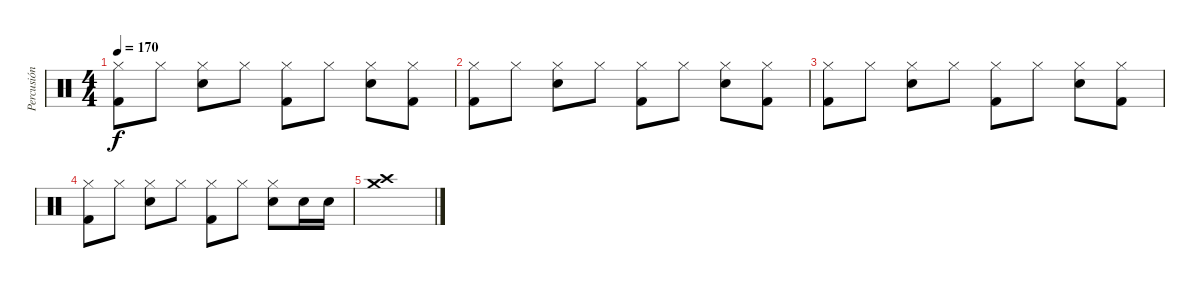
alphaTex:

\track ("Percusión" "Percusión") {instrument percussion}
\staff {score}
\articulation defaults
\ts (4 4)
\tempo 170
\clef neutral
\ks c
("Hi-Hat (closed)" "Kick (hit) 2").8{dy f} "Hi-Hat (closed)".8 ("Hi-Hat (closed)" "Electric Snare (hit)").8 "Hi-Hat (closed)".8 ("Hi-Hat (closed)" "Kick (hit) 2").8 "Hi-Hat (closed)".8 ("Hi-Hat (closed)" "Electric Snare (hit)").8 ("Hi-Hat (closed)" "Kick (hit) 2").8 |
("Hi-Hat (closed)" "Kick (hit) 2").8 "Hi-Hat (closed)".8 ("Hi-Hat (closed)" "Electric Snare (hit)").8 "Hi-Hat (closed)".8 ("Hi-Hat (closed)" "Kick (hit) 2").8 "Hi-Hat (closed)".8 ("Hi-Hat (closed)" "Electric Snare (hit)").8 ("Hi-Hat (closed)" "Kick (hit) 2").8 |
("Hi-Hat (closed)" "Kick (hit) 2").8 "Hi-Hat (closed)".8 ("Hi-Hat (closed)" "Electric Snare (hit)").8 "Hi-Hat (closed)".8 ("Hi-Hat (closed)" "Kick (hit) 2").8 "Hi-Hat (closed)".8 ("Hi-Hat (closed)" "Electric Snare (hit)").8 ("Hi-Hat (closed)" "Kick (hit) 2").8 |
("Hi-Hat (closed)" "Kick (hit) 2").8 "Hi-Hat (closed)".8 ("Hi-Hat (closed)" "Electric Snare (hit)").8 "Hi-Hat (closed)".8 ("Hi-Hat (closed)" "Kick (hit) 2").8 "Hi-Hat (closed)".8 ("Hi-Hat (closed)" "Electric Snare (hit)").8 "Electric Snare (hit)".16 "Electric Snare (hit)".16 |
("Crash high (hit)" "Crash medium (hit)").1
